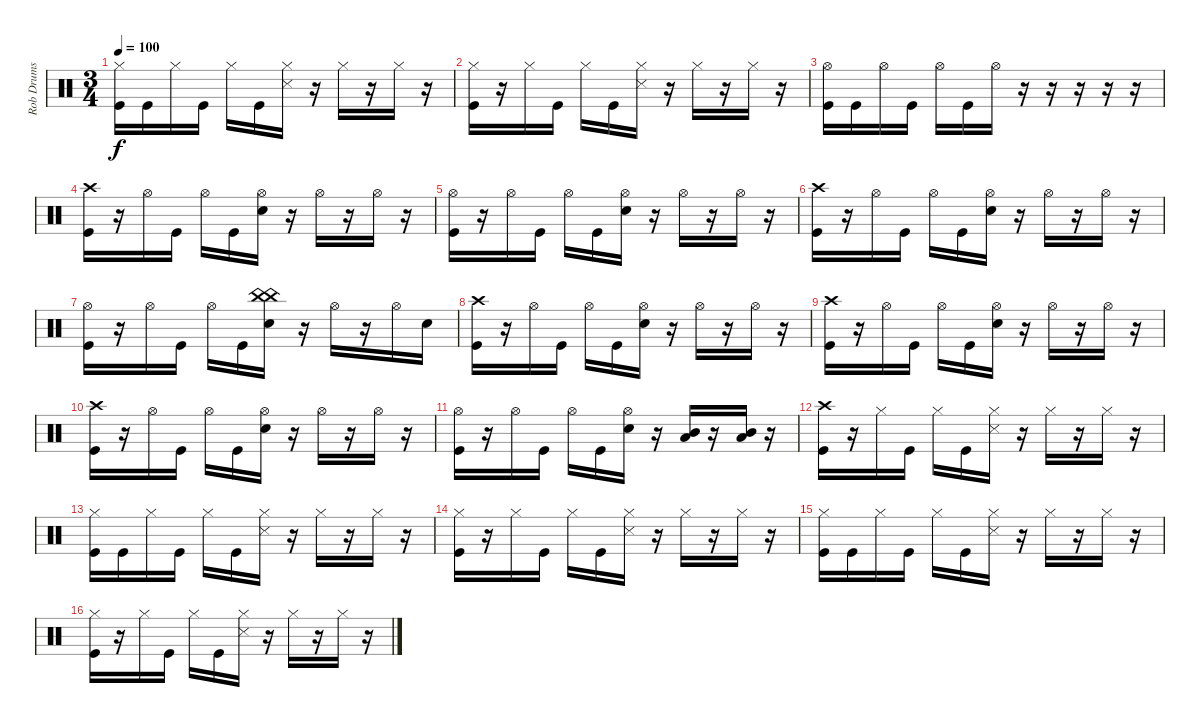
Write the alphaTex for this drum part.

\track ("Rob Drums" "Rob Drums") {instrument percussion}
\staff {score}
\articulation defaults
\ts (3 4)
\tempo 100
\clef neutral
\ks c
("Hi-Hat (closed)" "Kick (hit)").16{dy f} "Kick (hit)".16 "Hi-Hat (closed)".16 "Kick (hit)".16 "Hi-Hat (closed)".16 "Kick (hit)".16 ("Hi-Hat (closed)" "Snare (side stick) 3").16 r.16 "Hi-Hat (closed)".16 r.16 "Hi-Hat (closed)".16 r.16 |
("Hi-Hat (closed)" "Kick (hit)").16 r.16 "Hi-Hat (closed)".16 "Kick (hit)".16 "Hi-Hat (closed)".16 "Kick (hit)".16 ("Hi-Hat (closed)" "Snare (side stick) 3").16 r.16 "Hi-Hat (closed)".16 r.16 "Hi-Hat (closed)".16 r.16 |
("Hi-Hat (open)" "Kick (hit)").16 "Kick (hit)".16 "Hi-Hat (open)".16 "Kick (hit)".16 "Hi-Hat (open)".16 "Kick (hit)".16 "Hi-Hat (open)".16 r.16 r.16 r.16 r.16 r.16 |
("Crash high (hit)" "Kick (hit)").16 r.16 "Hi-Hat (open)".16 "Kick (hit)".16 "Hi-Hat (open)".16 "Kick (hit)".16 ("Hi-Hat (open)" "Snare (hit) 2").16 r.16 "Hi-Hat (open)".16 r.16 "Hi-Hat (open)".16 r.16 |
("Hi-Hat (open)" "Kick (hit)").16 r.16 "Hi-Hat (open)".16 "Kick (hit)".16 "Hi-Hat (open)".16 "Kick (hit)".16 ("Hi-Hat (open)" "Snare (hit) 2").16 r.16 "Hi-Hat (open)".16 r.16 "Hi-Hat (open)".16 r.16 |
("Crash high (hit)" "Kick (hit)").16 r.16 "Hi-Hat (open)".16 "Kick (hit)".16 "Hi-Hat (open)".16 "Kick (hit)".16 ("Hi-Hat (open)" "Snare (hit) 2").16 r.16 "Hi-Hat (open)".16 r.16 "Hi-Hat (open)".16 r.16 |
("Hi-Hat (open)" "Kick (hit)").16 r.16 "Hi-Hat (open)".16 "Kick (hit)".16 "Hi-Hat (open)".16 "Kick (hit)".16 ("China (hit)" "China (hit)" "Snare (hit) 2").16 r.16 "Hi-Hat (open)".16 r.16 "Hi-Hat (open)".16 "Snare (hit) 2".16 |
("Crash high (hit)" "Kick (hit)").16 r.16 "Hi-Hat (open)".16 "Kick (hit)".16 "Hi-Hat (open)".16 "Kick (hit)".16 ("Hi-Hat (open)" "Snare (hit) 2").16 r.16 "Hi-Hat (open)".16 r.16 "Hi-Hat (open)".16 r.16 |
("Crash high (hit)" "Kick (hit)").16 r.16 "Hi-Hat (open)".16 "Kick (hit)".16 "Hi-Hat (open)".16 "Kick (hit)".16 ("Hi-Hat (open)" "Snare (hit) 2").16 r.16 "Hi-Hat (open)".16 r.16 "Hi-Hat (open)".16 r.16 |
("Crash high (hit)" "Kick (hit)").16 r.16 "Hi-Hat (open)".16 "Kick (hit)".16 "Hi-Hat (open)".16 "Kick (hit)".16 ("Hi-Hat (open)" "Snare (hit) 2").16 r.16 "Hi-Hat (open)".16 r.16 "Hi-Hat (open)".16 r.16 |
("Hi-Hat (open)" "Kick (hit)").16 r.16 "Hi-Hat (open)".16 "Kick (hit)".16 "Hi-Hat (open)".16 "Kick (hit)".16 ("Hi-Hat (open)" "Snare (hit) 2").16 r.16 ("Mid Tom (hit)" "Low Tom (hit)").16 r.16 ("Mid Tom (hit)" "Low Tom (hit)").16 r.16 |
("Crash high (hit)" "Kick (hit)").16 r.16 "Hi-Hat (closed)".16 "Kick (hit)".16 "Hi-Hat (closed)".16 "Kick (hit)".16 ("Hi-Hat (closed)" "Snare (side stick) 3").16 r.16 "Hi-Hat (closed)".16 r.16 "Hi-Hat (closed)".16 r.16 |
("Hi-Hat (closed)" "Kick (hit)").16 "Kick (hit)".16 "Hi-Hat (closed)".16 "Kick (hit)".16 "Hi-Hat (closed)".16 "Kick (hit)".16 ("Hi-Hat (closed)" "Snare (side stick) 3").16 r.16 "Hi-Hat (closed)".16 r.16 "Hi-Hat (closed)".16 r.16 |
("Hi-Hat (closed)" "Kick (hit)").16 r.16 "Hi-Hat (closed)".16 "Kick (hit)".16 "Hi-Hat (closed)".16 "Kick (hit)".16 ("Hi-Hat (closed)" "Snare (side stick) 3").16 r.16 "Hi-Hat (closed)".16 r.16 "Hi-Hat (closed)".16 r.16 |
("Hi-Hat (closed)" "Kick (hit)").16 "Kick (hit)".16 "Hi-Hat (closed)".16 "Kick (hit)".16 "Hi-Hat (closed)".16 "Kick (hit)".16 ("Hi-Hat (closed)" "Snare (side stick) 3").16 r.16 "Hi-Hat (closed)".16 r.16 "Hi-Hat (closed)".16 r.16 |
("Hi-Hat (closed)" "Kick (hit)").16 r.16 "Hi-Hat (closed)".16 "Kick (hit)".16 "Hi-Hat (closed)".16 "Kick (hit)".16 ("Hi-Hat (closed)" "Snare (side stick) 3").16 r.16 "Hi-Hat (closed)".16 r.16 "Hi-Hat (closed)".16 r.16
